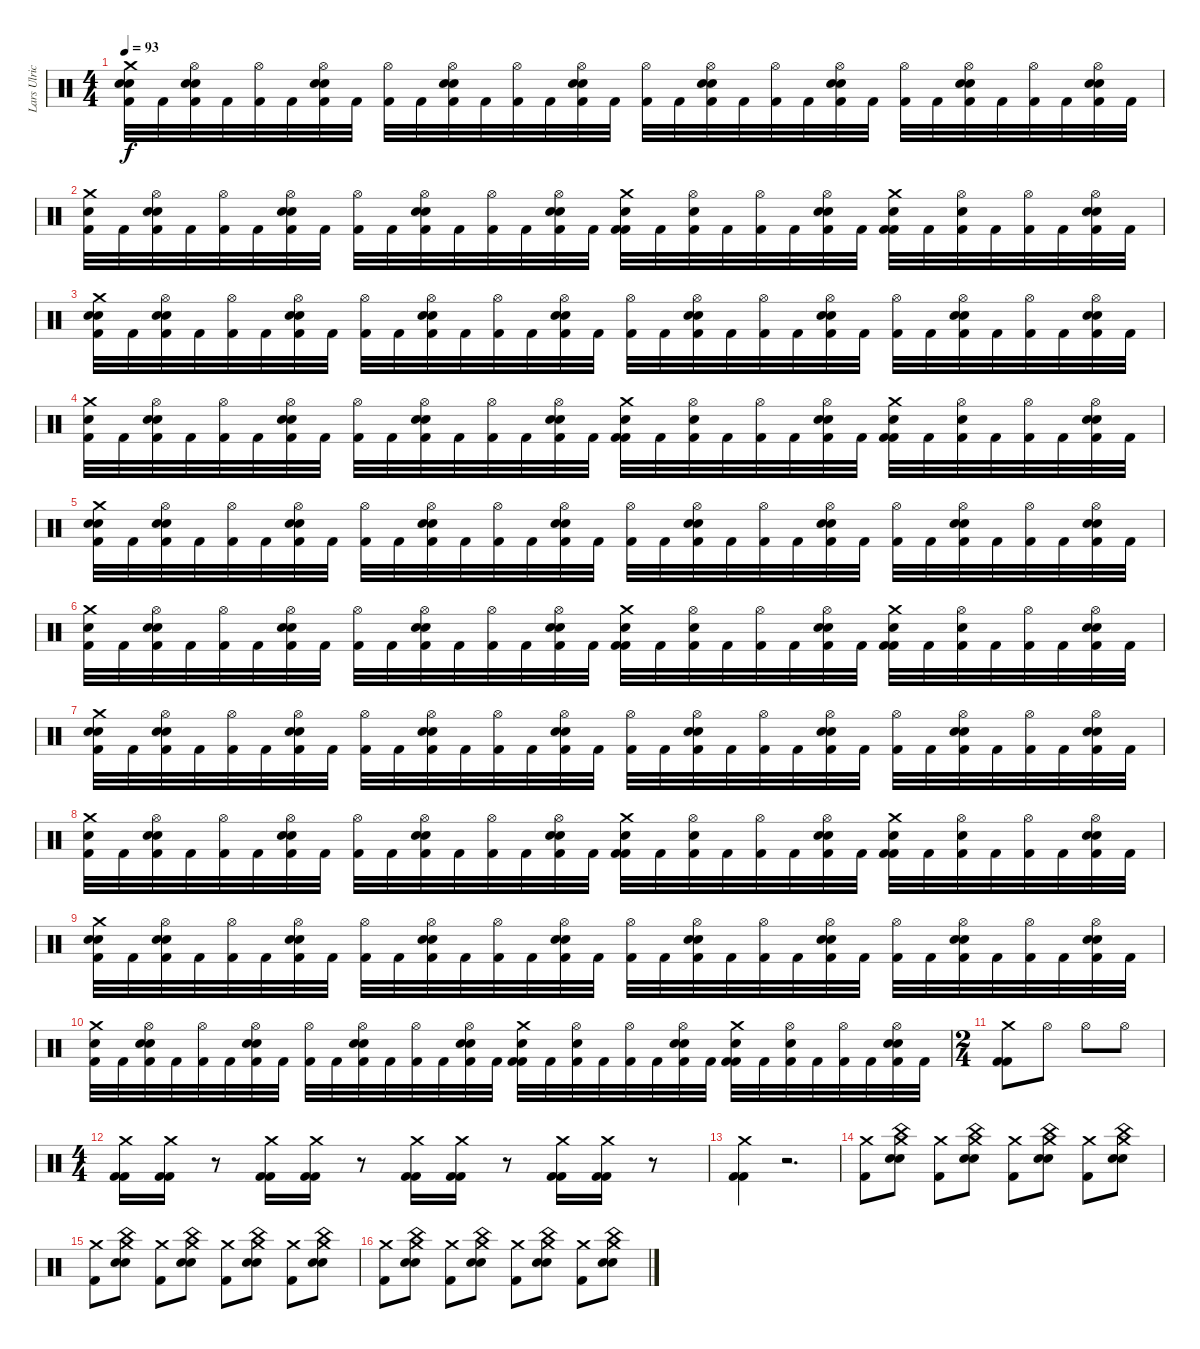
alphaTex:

\track ("Lars Ulrich" "Lars Ulric") {instrument percussion}
\staff {score}
\articulation defaults
\ts (4 4)
\tempo 93
\clef neutral
\ks c
("Crash medium (hit)" "Snare (hit) 2" "Snare (hit) 2" "Kick (hit) 2").32{dy f} "Kick (hit) 2".32 ("Hi-Hat (open)" "Electric Snare (hit)" "Snare (hit) 2" "Kick (hit) 2").32 "Kick (hit) 2".32 ("Hi-Hat (open)" "Kick (hit) 2").32 "Kick (hit) 2".32 ("Hi-Hat (open)" "Electric Snare (hit)" "Snare (hit) 2" "Kick (hit) 2").32 "Kick (hit) 2".32 ("Hi-Hat (open)" "Kick (hit) 2").32 "Kick (hit) 2".32 ("Hi-Hat (open)" "Electric Snare (hit)" "Snare (hit) 2" "Kick (hit) 2").32 "Kick (hit) 2".32 ("Hi-Hat (open)" "Kick (hit) 2").32 "Kick (hit) 2".32 ("Hi-Hat (open)" "Electric Snare (hit)" "Snare (hit) 2" "Kick (hit) 2").32 "Kick (hit) 2".32 ("Hi-Hat (open)" "Kick (hit) 2").32 "Kick (hit) 2".32 ("Hi-Hat (open)" "Electric Snare (hit)" "Snare (hit) 2" "Kick (hit) 2").32 "Kick (hit) 2".32 ("Hi-Hat (open)" "Kick (hit) 2").32 "Kick (hit) 2".32 ("Hi-Hat (open)" "Electric Snare (hit)" "Snare (hit) 2" "Kick (hit) 2").32 "Kick (hit) 2".32 ("Hi-Hat (open)" "Kick (hit) 2").32 "Kick (hit) 2".32 ("Hi-Hat (open)" "Electric Snare (hit)" "Snare (hit) 2" "Kick (hit) 2").32 "Kick (hit) 2".32 ("Hi-Hat (open)" "Kick (hit) 2").32 "Kick (hit) 2".32 ("Hi-Hat (open)" "Electric Snare (hit)" "Snare (hit) 2" "Kick (hit) 2").32 "Kick (hit) 2".32 |
("Crash medium (hit)" "Snare (hit) 2" "Kick (hit) 2").32 "Kick (hit) 2".32 ("Hi-Hat (open)" "Electric Snare (hit)" "Snare (hit) 2" "Kick (hit) 2").32 "Kick (hit) 2".32 ("Hi-Hat (open)" "Kick (hit) 2").32 "Kick (hit) 2".32 ("Hi-Hat (open)" "Electric Snare (hit)" "Snare (hit) 2" "Kick (hit) 2").32 "Kick (hit) 2".32 ("Hi-Hat (open)" "Kick (hit) 2").32 "Kick (hit) 2".32 ("Hi-Hat (open)" "Electric Snare (hit)" "Snare (hit) 2" "Kick (hit) 2").32 "Kick (hit) 2".32 ("Hi-Hat (open)" "Kick (hit) 2").32 "Kick (hit) 2".32 ("Hi-Hat (open)" "Electric Snare (hit)" "Snare (hit) 2" "Kick (hit) 2").32 "Kick (hit) 2".32 ("Crash medium (hit)" "Snare (hit) 2" "Kick (hit) 2" "Kick (hit) 2").32 "Kick (hit) 2".32 ("Hi-Hat (open)" "Electric Snare (hit)" "Kick (hit) 2").32 "Kick (hit) 2".32 ("Hi-Hat (open)" "Kick (hit) 2").32 "Kick (hit) 2".32 ("Hi-Hat (open)" "Electric Snare (hit)" "Snare (hit) 2" "Kick (hit) 2").32 "Kick (hit) 2".32 ("Crash medium (hit)" "Snare (hit) 2" "Kick (hit) 2" "Kick (hit) 2").32 "Kick (hit) 2".32 ("Hi-Hat (open)" "Electric Snare (hit)" "Kick (hit) 2").32 "Kick (hit) 2".32 ("Hi-Hat (open)" "Kick (hit) 2").32 "Kick (hit) 2".32 ("Hi-Hat (open)" "Electric Snare (hit)" "Snare (hit) 2" "Kick (hit) 2").32 "Kick (hit) 2".32 |
("Crash medium (hit)" "Snare (hit) 2" "Snare (hit) 2" "Kick (hit) 2").32 "Kick (hit) 2".32 ("Hi-Hat (open)" "Electric Snare (hit)" "Snare (hit) 2" "Kick (hit) 2").32 "Kick (hit) 2".32 ("Hi-Hat (open)" "Kick (hit) 2").32 "Kick (hit) 2".32 ("Hi-Hat (open)" "Electric Snare (hit)" "Snare (hit) 2" "Kick (hit) 2").32 "Kick (hit) 2".32 ("Hi-Hat (open)" "Kick (hit) 2").32 "Kick (hit) 2".32 ("Hi-Hat (open)" "Electric Snare (hit)" "Snare (hit) 2" "Kick (hit) 2").32 "Kick (hit) 2".32 ("Hi-Hat (open)" "Kick (hit) 2").32 "Kick (hit) 2".32 ("Hi-Hat (open)" "Electric Snare (hit)" "Snare (hit) 2" "Kick (hit) 2").32 "Kick (hit) 2".32 ("Hi-Hat (open)" "Kick (hit) 2").32 "Kick (hit) 2".32 ("Hi-Hat (open)" "Electric Snare (hit)" "Snare (hit) 2" "Kick (hit) 2").32 "Kick (hit) 2".32 ("Hi-Hat (open)" "Kick (hit) 2").32 "Kick (hit) 2".32 ("Hi-Hat (open)" "Electric Snare (hit)" "Snare (hit) 2" "Kick (hit) 2").32 "Kick (hit) 2".32 ("Hi-Hat (open)" "Kick (hit) 2").32 "Kick (hit) 2".32 ("Hi-Hat (open)" "Electric Snare (hit)" "Snare (hit) 2" "Kick (hit) 2").32 "Kick (hit) 2".32 ("Hi-Hat (open)" "Kick (hit) 2").32 "Kick (hit) 2".32 ("Hi-Hat (open)" "Electric Snare (hit)" "Snare (hit) 2" "Kick (hit) 2").32 "Kick (hit) 2".32 |
("Crash medium (hit)" "Snare (hit) 2" "Kick (hit) 2").32 "Kick (hit) 2".32 ("Hi-Hat (open)" "Electric Snare (hit)" "Snare (hit) 2" "Kick (hit) 2").32 "Kick (hit) 2".32 ("Hi-Hat (open)" "Kick (hit) 2").32 "Kick (hit) 2".32 ("Hi-Hat (open)" "Electric Snare (hit)" "Snare (hit) 2" "Kick (hit) 2").32 "Kick (hit) 2".32 ("Hi-Hat (open)" "Kick (hit) 2").32 "Kick (hit) 2".32 ("Hi-Hat (open)" "Electric Snare (hit)" "Snare (hit) 2" "Kick (hit) 2").32 "Kick (hit) 2".32 ("Hi-Hat (open)" "Kick (hit) 2").32 "Kick (hit) 2".32 ("Hi-Hat (open)" "Electric Snare (hit)" "Snare (hit) 2" "Kick (hit) 2").32 "Kick (hit) 2".32 ("Crash medium (hit)" "Snare (hit) 2" "Kick (hit) 2" "Kick (hit) 2").32 "Kick (hit) 2".32 ("Hi-Hat (open)" "Electric Snare (hit)" "Kick (hit) 2").32 "Kick (hit) 2".32 ("Hi-Hat (open)" "Kick (hit) 2").32 "Kick (hit) 2".32 ("Hi-Hat (open)" "Electric Snare (hit)" "Snare (hit) 2" "Kick (hit) 2").32 "Kick (hit) 2".32 ("Crash medium (hit)" "Snare (hit) 2" "Kick (hit) 2" "Kick (hit) 2").32 "Kick (hit) 2".32 ("Hi-Hat (open)" "Electric Snare (hit)" "Kick (hit) 2").32 "Kick (hit) 2".32 ("Hi-Hat (open)" "Kick (hit) 2").32 "Kick (hit) 2".32 ("Hi-Hat (open)" "Electric Snare (hit)" "Snare (hit) 2" "Kick (hit) 2").32 "Kick (hit) 2".32 |
("Crash medium (hit)" "Snare (hit) 2" "Snare (hit) 2" "Kick (hit) 2").32 "Kick (hit) 2".32 ("Hi-Hat (open)" "Electric Snare (hit)" "Snare (hit) 2" "Kick (hit) 2").32 "Kick (hit) 2".32 ("Hi-Hat (open)" "Kick (hit) 2").32 "Kick (hit) 2".32 ("Hi-Hat (open)" "Electric Snare (hit)" "Snare (hit) 2" "Kick (hit) 2").32 "Kick (hit) 2".32 ("Hi-Hat (open)" "Kick (hit) 2").32 "Kick (hit) 2".32 ("Hi-Hat (open)" "Electric Snare (hit)" "Snare (hit) 2" "Kick (hit) 2").32 "Kick (hit) 2".32 ("Hi-Hat (open)" "Kick (hit) 2").32 "Kick (hit) 2".32 ("Hi-Hat (open)" "Electric Snare (hit)" "Snare (hit) 2" "Kick (hit) 2").32 "Kick (hit) 2".32 ("Hi-Hat (open)" "Kick (hit) 2").32 "Kick (hit) 2".32 ("Hi-Hat (open)" "Electric Snare (hit)" "Snare (hit) 2" "Kick (hit) 2").32 "Kick (hit) 2".32 ("Hi-Hat (open)" "Kick (hit) 2").32 "Kick (hit) 2".32 ("Hi-Hat (open)" "Electric Snare (hit)" "Snare (hit) 2" "Kick (hit) 2").32 "Kick (hit) 2".32 ("Hi-Hat (open)" "Kick (hit) 2").32 "Kick (hit) 2".32 ("Hi-Hat (open)" "Electric Snare (hit)" "Snare (hit) 2" "Kick (hit) 2").32 "Kick (hit) 2".32 ("Hi-Hat (open)" "Kick (hit) 2").32 "Kick (hit) 2".32 ("Hi-Hat (open)" "Electric Snare (hit)" "Snare (hit) 2" "Kick (hit) 2").32 "Kick (hit) 2".32 |
("Crash medium (hit)" "Snare (hit) 2" "Kick (hit) 2").32 "Kick (hit) 2".32 ("Hi-Hat (open)" "Electric Snare (hit)" "Snare (hit) 2" "Kick (hit) 2").32 "Kick (hit) 2".32 ("Hi-Hat (open)" "Kick (hit) 2").32 "Kick (hit) 2".32 ("Hi-Hat (open)" "Electric Snare (hit)" "Snare (hit) 2" "Kick (hit) 2").32 "Kick (hit) 2".32 ("Hi-Hat (open)" "Kick (hit) 2").32 "Kick (hit) 2".32 ("Hi-Hat (open)" "Electric Snare (hit)" "Snare (hit) 2" "Kick (hit) 2").32 "Kick (hit) 2".32 ("Hi-Hat (open)" "Kick (hit) 2").32 "Kick (hit) 2".32 ("Hi-Hat (open)" "Electric Snare (hit)" "Snare (hit) 2" "Kick (hit) 2").32 "Kick (hit) 2".32 ("Crash medium (hit)" "Snare (hit) 2" "Kick (hit) 2" "Kick (hit) 2").32 "Kick (hit) 2".32 ("Hi-Hat (open)" "Electric Snare (hit)" "Kick (hit) 2").32 "Kick (hit) 2".32 ("Hi-Hat (open)" "Kick (hit) 2").32 "Kick (hit) 2".32 ("Hi-Hat (open)" "Electric Snare (hit)" "Snare (hit) 2" "Kick (hit) 2").32 "Kick (hit) 2".32 ("Crash medium (hit)" "Snare (hit) 2" "Kick (hit) 2" "Kick (hit) 2").32 "Kick (hit) 2".32 ("Hi-Hat (open)" "Electric Snare (hit)" "Kick (hit) 2").32 "Kick (hit) 2".32 ("Hi-Hat (open)" "Kick (hit) 2").32 "Kick (hit) 2".32 ("Hi-Hat (open)" "Electric Snare (hit)" "Snare (hit) 2" "Kick (hit) 2").32 "Kick (hit) 2".32 |
("Crash medium (hit)" "Snare (hit) 2" "Snare (hit) 2" "Kick (hit) 2").32 "Kick (hit) 2".32 ("Hi-Hat (open)" "Electric Snare (hit)" "Snare (hit) 2" "Kick (hit) 2").32 "Kick (hit) 2".32 ("Hi-Hat (open)" "Kick (hit) 2").32 "Kick (hit) 2".32 ("Hi-Hat (open)" "Electric Snare (hit)" "Snare (hit) 2" "Kick (hit) 2").32 "Kick (hit) 2".32 ("Hi-Hat (open)" "Kick (hit) 2").32 "Kick (hit) 2".32 ("Hi-Hat (open)" "Electric Snare (hit)" "Snare (hit) 2" "Kick (hit) 2").32 "Kick (hit) 2".32 ("Hi-Hat (open)" "Kick (hit) 2").32 "Kick (hit) 2".32 ("Hi-Hat (open)" "Electric Snare (hit)" "Snare (hit) 2" "Kick (hit) 2").32 "Kick (hit) 2".32 ("Hi-Hat (open)" "Kick (hit) 2").32 "Kick (hit) 2".32 ("Hi-Hat (open)" "Electric Snare (hit)" "Snare (hit) 2" "Kick (hit) 2").32 "Kick (hit) 2".32 ("Hi-Hat (open)" "Kick (hit) 2").32 "Kick (hit) 2".32 ("Hi-Hat (open)" "Electric Snare (hit)" "Snare (hit) 2" "Kick (hit) 2").32 "Kick (hit) 2".32 ("Hi-Hat (open)" "Kick (hit) 2").32 "Kick (hit) 2".32 ("Hi-Hat (open)" "Electric Snare (hit)" "Snare (hit) 2" "Kick (hit) 2").32 "Kick (hit) 2".32 ("Hi-Hat (open)" "Kick (hit) 2").32 "Kick (hit) 2".32 ("Hi-Hat (open)" "Electric Snare (hit)" "Snare (hit) 2" "Kick (hit) 2").32 "Kick (hit) 2".32 |
("Crash medium (hit)" "Snare (hit) 2" "Kick (hit) 2").32 "Kick (hit) 2".32 ("Hi-Hat (open)" "Electric Snare (hit)" "Snare (hit) 2" "Kick (hit) 2").32 "Kick (hit) 2".32 ("Hi-Hat (open)" "Kick (hit) 2").32 "Kick (hit) 2".32 ("Hi-Hat (open)" "Electric Snare (hit)" "Snare (hit) 2" "Kick (hit) 2").32 "Kick (hit) 2".32 ("Hi-Hat (open)" "Kick (hit) 2").32 "Kick (hit) 2".32 ("Hi-Hat (open)" "Electric Snare (hit)" "Snare (hit) 2" "Kick (hit) 2").32 "Kick (hit) 2".32 ("Hi-Hat (open)" "Kick (hit) 2").32 "Kick (hit) 2".32 ("Hi-Hat (open)" "Electric Snare (hit)" "Snare (hit) 2" "Kick (hit) 2").32 "Kick (hit) 2".32 ("Crash medium (hit)" "Snare (hit) 2" "Kick (hit) 2" "Kick (hit) 2").32 "Kick (hit) 2".32 ("Hi-Hat (open)" "Electric Snare (hit)" "Kick (hit) 2").32 "Kick (hit) 2".32 ("Hi-Hat (open)" "Kick (hit) 2").32 "Kick (hit) 2".32 ("Hi-Hat (open)" "Electric Snare (hit)" "Snare (hit) 2" "Kick (hit) 2").32 "Kick (hit) 2".32 ("Crash medium (hit)" "Snare (hit) 2" "Kick (hit) 2" "Kick (hit) 2").32 "Kick (hit) 2".32 ("Hi-Hat (open)" "Electric Snare (hit)" "Kick (hit) 2").32 "Kick (hit) 2".32 ("Hi-Hat (open)" "Kick (hit) 2").32 "Kick (hit) 2".32 ("Hi-Hat (open)" "Electric Snare (hit)" "Snare (hit) 2" "Kick (hit) 2").32 "Kick (hit) 2".32 |
("Crash medium (hit)" "Snare (hit) 2" "Snare (hit) 2" "Kick (hit) 2").32 "Kick (hit) 2".32 ("Hi-Hat (open)" "Electric Snare (hit)" "Snare (hit) 2" "Kick (hit) 2").32 "Kick (hit) 2".32 ("Hi-Hat (open)" "Kick (hit) 2").32 "Kick (hit) 2".32 ("Hi-Hat (open)" "Electric Snare (hit)" "Snare (hit) 2" "Kick (hit) 2").32 "Kick (hit) 2".32 ("Hi-Hat (open)" "Kick (hit) 2").32 "Kick (hit) 2".32 ("Hi-Hat (open)" "Electric Snare (hit)" "Snare (hit) 2" "Kick (hit) 2").32 "Kick (hit) 2".32 ("Hi-Hat (open)" "Kick (hit) 2").32 "Kick (hit) 2".32 ("Hi-Hat (open)" "Electric Snare (hit)" "Snare (hit) 2" "Kick (hit) 2").32 "Kick (hit) 2".32 ("Hi-Hat (open)" "Kick (hit) 2").32 "Kick (hit) 2".32 ("Hi-Hat (open)" "Electric Snare (hit)" "Snare (hit) 2" "Kick (hit) 2").32 "Kick (hit) 2".32 ("Hi-Hat (open)" "Kick (hit) 2").32 "Kick (hit) 2".32 ("Hi-Hat (open)" "Electric Snare (hit)" "Snare (hit) 2" "Kick (hit) 2").32 "Kick (hit) 2".32 ("Hi-Hat (open)" "Kick (hit) 2").32 "Kick (hit) 2".32 ("Hi-Hat (open)" "Electric Snare (hit)" "Snare (hit) 2" "Kick (hit) 2").32 "Kick (hit) 2".32 ("Hi-Hat (open)" "Kick (hit) 2").32 "Kick (hit) 2".32 ("Hi-Hat (open)" "Electric Snare (hit)" "Snare (hit) 2" "Kick (hit) 2").32 "Kick (hit) 2".32 |
("Crash medium (hit)" "Snare (hit) 2" "Kick (hit) 2").32 "Kick (hit) 2".32 ("Hi-Hat (open)" "Electric Snare (hit)" "Snare (hit) 2" "Kick (hit) 2").32 "Kick (hit) 2".32 ("Hi-Hat (open)" "Kick (hit) 2").32 "Kick (hit) 2".32 ("Hi-Hat (open)" "Electric Snare (hit)" "Snare (hit) 2" "Kick (hit) 2").32 "Kick (hit) 2".32 ("Hi-Hat (open)" "Kick (hit) 2").32 "Kick (hit) 2".32 ("Hi-Hat (open)" "Electric Snare (hit)" "Snare (hit) 2" "Kick (hit) 2").32 "Kick (hit) 2".32 ("Hi-Hat (open)" "Kick (hit) 2").32 "Kick (hit) 2".32 ("Hi-Hat (open)" "Electric Snare (hit)" "Snare (hit) 2" "Kick (hit) 2").32 "Kick (hit) 2".32 ("Crash medium (hit)" "Snare (hit) 2" "Kick (hit) 2" "Kick (hit) 2").32 "Kick (hit) 2".32 ("Hi-Hat (open)" "Electric Snare (hit)" "Kick (hit) 2").32 "Kick (hit) 2".32 ("Hi-Hat (open)" "Kick (hit) 2").32 "Kick (hit) 2".32 ("Hi-Hat (open)" "Electric Snare (hit)" "Snare (hit) 2" "Kick (hit) 2").32 "Kick (hit) 2".32 ("Crash medium (hit)" "Snare (hit) 2" "Kick (hit) 2" "Kick (hit) 2").32 "Kick (hit) 2".32 ("Hi-Hat (open)" "Electric Snare (hit)" "Kick (hit) 2").32 "Kick (hit) 2".32 ("Hi-Hat (open)" "Kick (hit) 2").32 "Kick (hit) 2".32 ("Hi-Hat (open)" "Electric Snare (hit)" "Snare (hit) 2" "Kick (hit) 2").32 "Kick (hit) 2".32 |
\ts (2 4)
("Crash medium (hit)" "Kick (hit) 2" "Kick (hit) 2").8 "Hi-Hat (open)".8 "Hi-Hat (open)".8 "Hi-Hat (open)".8 |
\ts (4 4)
("Crash medium (hit)" "Kick (hit) 2" "Kick (hit) 2").16 ("Crash medium (hit)" "Kick (hit) 2" "Kick (hit) 2").16 r.8 ("Crash medium (hit)" "Kick (hit) 2" "Kick (hit) 2").16 ("Crash medium (hit)" "Kick (hit) 2" "Kick (hit) 2").16 r.8 ("Crash medium (hit)" "Kick (hit) 2" "Kick (hit) 2").16 ("Crash medium (hit)" "Kick (hit) 2" "Kick (hit) 2").16 r.8 ("Crash medium (hit)" "Kick (hit) 2" "Kick (hit) 2").16 ("Crash medium (hit)" "Kick (hit) 2" "Kick (hit) 2").16 r.8 |
("Crash medium (hit)" "Kick (hit) 2" "Kick (hit) 2").4 r.2{d} |
("Crash medium (hit)" "Kick (hit) 2").8 ("Crash medium (hit)" "China (hit)" "Electric Snare (hit)" "Snare (hit) 2").8 ("Crash medium (hit)" "Kick (hit) 2").8 ("Crash medium (hit)" "China (hit)" "Electric Snare (hit)" "Snare (hit) 2").8 ("Crash medium (hit)" "Kick (hit) 2").8 ("Crash medium (hit)" "China (hit)" "Electric Snare (hit)" "Snare (hit) 2").8 ("Crash medium (hit)" "Kick (hit) 2").8 ("Crash medium (hit)" "China (hit)" "Electric Snare (hit)" "Snare (hit) 2").8 |
("Crash medium (hit)" "Kick (hit) 2").8 ("Crash medium (hit)" "China (hit)" "Electric Snare (hit)" "Snare (hit) 2").8 ("Crash medium (hit)" "Kick (hit) 2").8 ("Crash medium (hit)" "China (hit)" "Electric Snare (hit)" "Snare (hit) 2").8 ("Crash medium (hit)" "Kick (hit) 2").8 ("Crash medium (hit)" "China (hit)" "Electric Snare (hit)" "Snare (hit) 2").8 ("Crash medium (hit)" "Kick (hit) 2").8 ("Crash medium (hit)" "China (hit)" "Electric Snare (hit)" "Snare (hit) 2").8 |
("Crash medium (hit)" "Kick (hit) 2").8 ("Crash medium (hit)" "China (hit)" "Electric Snare (hit)" "Snare (hit) 2").8 ("Crash medium (hit)" "Kick (hit) 2").8 ("Crash medium (hit)" "China (hit)" "Electric Snare (hit)" "Snare (hit) 2").8 ("Crash medium (hit)" "Kick (hit) 2").8 ("Crash medium (hit)" "China (hit)" "Electric Snare (hit)" "Snare (hit) 2").8 ("Crash medium (hit)" "Kick (hit) 2").8 ("Crash medium (hit)" "China (hit)" "Electric Snare (hit)" "Snare (hit) 2").8
